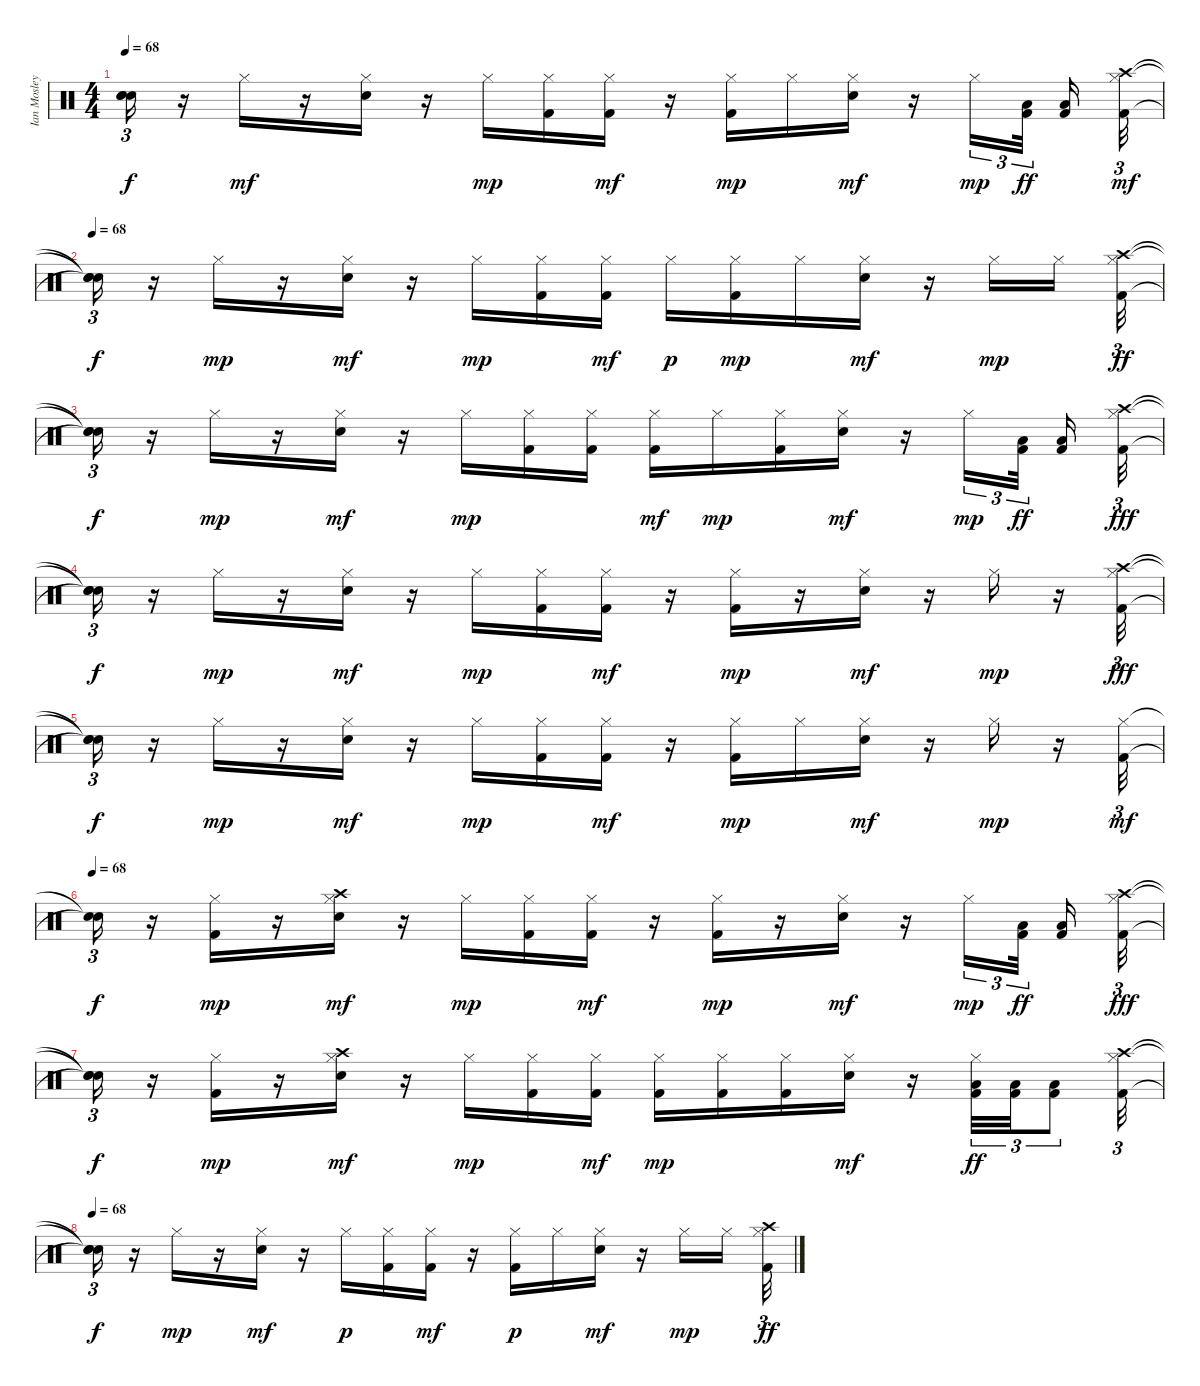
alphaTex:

\track ("Ian Mosley" "Ian Mosley") {instrument percussion}
\staff {score}
\articulation defaults
\ts (4 4)
\tempo 68
\clef neutral
\ks c
("Snare (hit)"{t} "Snare (hit)"{t} "Snare (hit)"{t}).16{tu (3 2) dy f} r.16 "Hi-Hat (closed)".16{dy mf} r.16 ("Snare (hit) 2" "Hi-Hat (closed)").16 r.16 "Hi-Hat (closed)".16{dy mp} ("Kick (hit) 2" "Hi-Hat (closed)").16 ("Kick (hit) 2" "Hi-Hat (closed)").16{dy mf} r.16 ("Kick (hit) 2" "Hi-Hat (closed)").16{dy mp} "Hi-Hat (closed)".16 ("Snare (hit) 2" "Hi-Hat (closed)").16{dy mf} r.16 "Hi-Hat (closed)".16{tu (3 2) dy mp} ("Kick (hit) 2" "Low Tom (hit)").32{tu (3 2) dy ff beam splitsecondary} ("Kick (hit) 2" "Low Floor Tom (hit)").16 ("Kick (hit) 2" "Hi-Hat (closed)" "Crash high (hit)").32{tu (3 2) dy mf} |
\tempo 68
("Snare (hit)"{t} "Snare (hit)"{t} "Snare (hit)"{t}).16{tu (3 2) dy f} r.16 "Hi-Hat (closed)".16{dy mp} r.16 ("Snare (hit) 2" "Hi-Hat (closed)").16{dy mf} r.16 "Hi-Hat (closed)".16{dy mp} ("Kick (hit) 2" "Hi-Hat (closed)").16 ("Kick (hit) 2" "Hi-Hat (closed)").16{dy mf} "Hi-Hat (closed)".16{dy p} ("Kick (hit) 2" "Hi-Hat (closed)").16{dy mp} "Hi-Hat (closed)".16 ("Snare (hit) 2" "Hi-Hat (closed)").16{dy mf} r.16 "Hi-Hat (closed)".16{dy mp} "Hi-Hat (closed)".16{beam splitsecondary} ("Kick (hit) 2" "Hi-Hat (closed)" "Crash high (hit)").32{tu (3 2) dy ff} |
("Snare (hit)"{t} "Snare (hit)"{t} "Snare (hit)"{t}).16{tu (3 2) dy f} r.16 "Hi-Hat (closed)".16{dy mp} r.16 ("Snare (hit) 2" "Hi-Hat (closed)").16{dy mf} r.16 "Hi-Hat (closed)".16{dy mp} ("Kick (hit) 2" "Hi-Hat (closed)").16 ("Kick (hit) 2" "Hi-Hat (closed)").16 ("Kick (hit) 2" "Hi-Hat (closed)").16{dy mf} "Hi-Hat (closed)".16{dy mp} ("Kick (hit) 2" "Hi-Hat (closed)").16 ("Snare (hit) 2" "Hi-Hat (closed)").16{dy mf} r.16 "Hi-Hat (closed)".16{tu (3 2) dy mp} ("Kick (hit) 2" "Low Tom (hit)").32{tu (3 2) dy ff beam splitsecondary} ("Kick (hit) 2" "Low Floor Tom (hit)").16 ("Kick (hit) 2" "Hi-Hat (closed)" "Crash high (hit)").32{tu (3 2) dy fff} |
("Snare (hit)"{t} "Snare (hit)"{t} "Snare (hit)"{t}).16{tu (3 2) dy f} r.16 "Hi-Hat (closed)".16{dy mp} r.16 ("Snare (hit) 2" "Hi-Hat (closed)").16{dy mf} r.16 "Hi-Hat (closed)".16{dy mp} ("Kick (hit) 2" "Hi-Hat (closed)").16 ("Kick (hit) 2" "Hi-Hat (closed)").16{dy mf} r.16 ("Kick (hit) 2" "Hi-Hat (closed)").16{dy mp} r.16 ("Snare (hit) 2" "Hi-Hat (closed)").16{dy mf} r.16 "Hi-Hat (closed)".16{dy mp} r.16 ("Kick (hit) 2" "Hi-Hat (closed)" "Crash high (hit)").32{tu (3 2) dy fff} |
("Snare (hit)"{t} "Snare (hit)"{t} "Snare (hit)"{t}).16{tu (3 2) dy f} r.16 "Hi-Hat (closed)".16{dy mp} r.16 ("Snare (hit) 2" "Hi-Hat (closed)").16{dy mf} r.16 "Hi-Hat (closed)".16{dy mp} ("Kick (hit) 2" "Hi-Hat (closed)").16 ("Kick (hit) 2" "Hi-Hat (closed)").16{dy mf} r.16 ("Kick (hit) 2" "Hi-Hat (closed)").16{dy mp} "Hi-Hat (closed)".16 ("Snare (hit) 2" "Hi-Hat (closed)").16{dy mf} r.16 "Hi-Hat (closed)".16{dy mp} r.16 ("Kick (hit) 2" "Hi-Hat (closed)").32{tu (3 2) dy mf} |
\tempo 68
("Snare (hit)"{t} "Snare (hit)"{t}).16{tu (3 2) dy f} r.16 ("Kick (hit) 2" "Hi-Hat (closed)").16{dy mp} r.16 ("Snare (hit) 2" "Hi-Hat (closed)" "Crash high (hit)").16{dy mf} r.16 "Hi-Hat (closed)".16{dy mp} ("Kick (hit) 2" "Hi-Hat (closed)").16 ("Kick (hit) 2" "Hi-Hat (closed)").16{dy mf} r.16 ("Kick (hit) 2" "Hi-Hat (closed)").16{dy mp} r.16 ("Snare (hit) 2" "Hi-Hat (closed)").16{dy mf} r.16 "Hi-Hat (closed)".16{tu (3 2) dy mp} ("Kick (hit) 2" "Low Tom (hit)").32{tu (3 2) dy ff beam splitsecondary} ("Kick (hit) 2" "Low Floor Tom (hit)").16 ("Kick (hit) 2" "Hi-Hat (closed)" "Crash high (hit)").32{tu (3 2) dy fff} |
("Snare (hit)"{t} "Snare (hit)"{t} "Snare (hit)"{t}).16{tu (3 2) dy f} r.16 ("Kick (hit) 2" "Hi-Hat (closed)").16{dy mp} r.16 ("Snare (hit) 2" "Hi-Hat (closed)" "Crash high (hit)").16{dy mf} r.16 "Hi-Hat (closed)".16{dy mp} ("Kick (hit) 2" "Hi-Hat (closed)").16 ("Kick (hit) 2" "Hi-Hat (closed)").16{dy mf} ("Kick (hit) 2" "Hi-Hat (closed)").16{dy mp} ("Kick (hit) 2" "Hi-Hat (closed)").16 ("Kick (hit) 2" "Hi-Hat (closed)").16 ("Snare (hit) 2" "Hi-Hat (closed)").16{dy mf} r.16 ("Hi-Hat (closed)" "Kick (hit) 2" "Low Tom (hit)").32{tu (3 2) dy ff} ("Kick (hit) 2" "Low Floor Tom (hit)").32{tu (3 2)} ("Kick (hit) 2" "Low Floor Tom (hit)").8{tu (3 2)} ("Kick (hit) 2" "Hi-Hat (closed)" "Crash high (hit)").32{tu (3 2)} |
\tempo 68
("Snare (hit)"{t} "Snare (hit)"{t} "Snare (hit)"{t}).16{tu (3 2) dy f} r.16 "Hi-Hat (closed)".16{dy mp} r.16 ("Snare (hit) 2" "Hi-Hat (closed)").16{dy mf} r.16 "Hi-Hat (closed)".16{dy p} ("Kick (hit) 2" "Hi-Hat (closed)").16 ("Kick (hit) 2" "Hi-Hat (closed)").16{dy mf} r.16 ("Kick (hit) 2" "Hi-Hat (closed)").16{dy p} "Hi-Hat (closed)".16 ("Snare (hit) 2" "Hi-Hat (closed)").16{dy mf} r.16 "Hi-Hat (closed)".16{dy mp} "Hi-Hat (closed)".16{beam splitsecondary} ("Kick (hit) 2" "Hi-Hat (closed)" "Crash high (hit)").32{tu (3 2) dy ff}
